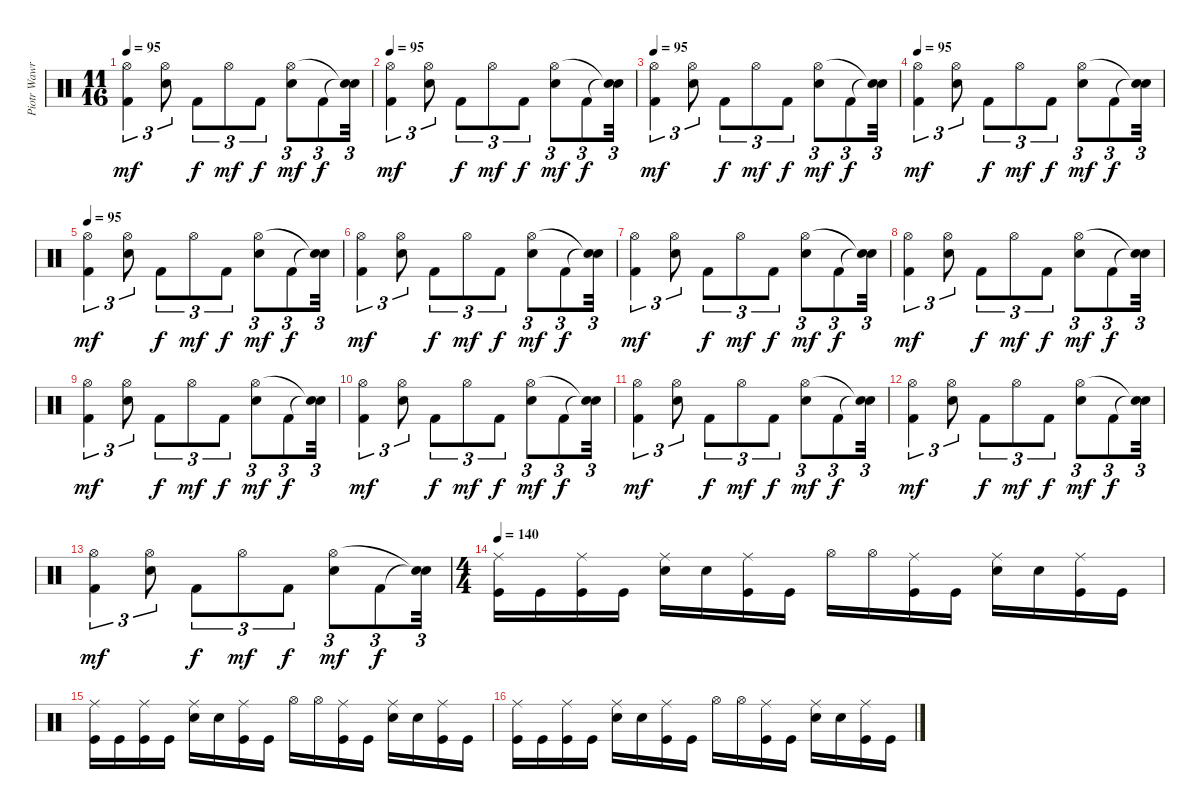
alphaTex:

\track ("Piotr Wawrzeniunk (drums)" "Piotr Wawr") {instrument percussion}
\staff {score}
\articulation defaults
\ts (11 16)
\tempo 95
\clef neutral
\ks c
("Kick (hit) 2" "Hi-Hat (open)").4{tu (3 2) dy mf} ("Electric Snare (hit)" "Hi-Hat (open)").8{tu (3 2)} "Kick (hit) 2".8{tu (3 2) dy f} "Hi-Hat (open)".8{tu (3 2) dy mf} "Kick (hit) 2".8{tu (3 2) dy f} ("Electric Snare (hit)" "Hi-Hat (open)").8{tu (3 2) dy mf} "Kick (hit) 2".8{tu (3 2) dy f} ("Snare (hit)"{t} "Snare (hit)"{t}).32{tu (3 2)} |
\tempo 95
("Kick (hit) 2" "Hi-Hat (open)").4{tu (3 2) dy mf} ("Electric Snare (hit)" "Hi-Hat (open)").8{tu (3 2)} "Kick (hit) 2".8{tu (3 2) dy f} "Hi-Hat (open)".8{tu (3 2) dy mf} "Kick (hit) 2".8{tu (3 2) dy f} ("Electric Snare (hit)" "Hi-Hat (open)").8{tu (3 2) dy mf} "Kick (hit) 2".8{tu (3 2) dy f} ("Snare (hit)"{t} "Snare (hit)"{t}).32{tu (3 2)} |
\tempo 95
("Kick (hit) 2" "Hi-Hat (open)").4{tu (3 2) dy mf} ("Electric Snare (hit)" "Hi-Hat (open)").8{tu (3 2)} "Kick (hit) 2".8{tu (3 2) dy f} "Hi-Hat (open)".8{tu (3 2) dy mf} "Kick (hit) 2".8{tu (3 2) dy f} ("Electric Snare (hit)" "Hi-Hat (open)").8{tu (3 2) dy mf} "Kick (hit) 2".8{tu (3 2) dy f} ("Snare (hit)"{t} "Snare (hit)"{t}).32{tu (3 2)} |
\tempo 95
("Kick (hit) 2" "Hi-Hat (open)").4{tu (3 2) dy mf} ("Electric Snare (hit)" "Hi-Hat (open)").8{tu (3 2)} "Kick (hit) 2".8{tu (3 2) dy f} "Hi-Hat (open)".8{tu (3 2) dy mf} "Kick (hit) 2".8{tu (3 2) dy f} ("Electric Snare (hit)" "Hi-Hat (open)").8{tu (3 2) dy mf} "Kick (hit) 2".8{tu (3 2) dy f} ("Snare (hit)"{t} "Snare (hit)"{t}).32{tu (3 2)} |
\tempo 95
("Kick (hit) 2" "Hi-Hat (open)").4{tu (3 2) dy mf} ("Electric Snare (hit)" "Hi-Hat (open)").8{tu (3 2)} "Kick (hit) 2".8{tu (3 2) dy f} "Hi-Hat (open)".8{tu (3 2) dy mf} "Kick (hit) 2".8{tu (3 2) dy f} ("Electric Snare (hit)" "Hi-Hat (open)").8{tu (3 2) dy mf} "Kick (hit) 2".8{tu (3 2) dy f} ("Snare (hit)"{t} "Snare (hit)"{t}).32{tu (3 2)} |
("Kick (hit) 2" "Hi-Hat (open)").4{tu (3 2) dy mf} ("Electric Snare (hit)" "Hi-Hat (open)").8{tu (3 2)} "Kick (hit) 2".8{tu (3 2) dy f} "Hi-Hat (open)".8{tu (3 2) dy mf} "Kick (hit) 2".8{tu (3 2) dy f} ("Electric Snare (hit)" "Hi-Hat (open)").8{tu (3 2) dy mf} "Kick (hit) 2".8{tu (3 2) dy f} ("Snare (hit)"{t} "Snare (hit)"{t}).32{tu (3 2)} |
("Kick (hit) 2" "Hi-Hat (open)").4{tu (3 2) dy mf} ("Electric Snare (hit)" "Hi-Hat (open)").8{tu (3 2)} "Kick (hit) 2".8{tu (3 2) dy f} "Hi-Hat (open)".8{tu (3 2) dy mf} "Kick (hit) 2".8{tu (3 2) dy f} ("Electric Snare (hit)" "Hi-Hat (open)").8{tu (3 2) dy mf} "Kick (hit) 2".8{tu (3 2) dy f} ("Snare (hit)"{t} "Snare (hit)"{t}).32{tu (3 2)} |
("Kick (hit) 2" "Hi-Hat (open)").4{tu (3 2) dy mf} ("Electric Snare (hit)" "Hi-Hat (open)").8{tu (3 2)} "Kick (hit) 2".8{tu (3 2) dy f} "Hi-Hat (open)".8{tu (3 2) dy mf} "Kick (hit) 2".8{tu (3 2) dy f} ("Electric Snare (hit)" "Hi-Hat (open)").8{tu (3 2) dy mf} "Kick (hit) 2".8{tu (3 2) dy f} ("Snare (hit)"{t} "Snare (hit)"{t}).32{tu (3 2)} |
("Kick (hit) 2" "Hi-Hat (open)").4{tu (3 2) dy mf} ("Electric Snare (hit)" "Hi-Hat (open)").8{tu (3 2)} "Kick (hit) 2".8{tu (3 2) dy f} "Hi-Hat (open)".8{tu (3 2) dy mf} "Kick (hit) 2".8{tu (3 2) dy f} ("Electric Snare (hit)" "Hi-Hat (open)").8{tu (3 2) dy mf} "Kick (hit) 2".8{tu (3 2) dy f} ("Snare (hit)"{t} "Snare (hit)"{t}).32{tu (3 2)} |
("Kick (hit) 2" "Hi-Hat (open)").4{tu (3 2) dy mf} ("Electric Snare (hit)" "Hi-Hat (open)").8{tu (3 2)} "Kick (hit) 2".8{tu (3 2) dy f} "Hi-Hat (open)".8{tu (3 2) dy mf} "Kick (hit) 2".8{tu (3 2) dy f} ("Electric Snare (hit)" "Hi-Hat (open)").8{tu (3 2) dy mf} "Kick (hit) 2".8{tu (3 2) dy f} ("Snare (hit)"{t} "Snare (hit)"{t}).32{tu (3 2)} |
("Kick (hit) 2" "Hi-Hat (open)").4{tu (3 2) dy mf} ("Electric Snare (hit)" "Hi-Hat (open)").8{tu (3 2)} "Kick (hit) 2".8{tu (3 2) dy f} "Hi-Hat (open)".8{tu (3 2) dy mf} "Kick (hit) 2".8{tu (3 2) dy f} ("Electric Snare (hit)" "Hi-Hat (open)").8{tu (3 2) dy mf} "Kick (hit) 2".8{tu (3 2) dy f} ("Snare (hit)"{t} "Snare (hit)"{t}).32{tu (3 2)} |
("Kick (hit) 2" "Hi-Hat (open)").4{tu (3 2) dy mf} ("Electric Snare (hit)" "Hi-Hat (open)").8{tu (3 2)} "Kick (hit) 2".8{tu (3 2) dy f} "Hi-Hat (open)".8{tu (3 2) dy mf} "Kick (hit) 2".8{tu (3 2) dy f} ("Electric Snare (hit)" "Hi-Hat (open)").8{tu (3 2) dy mf} "Kick (hit) 2".8{tu (3 2) dy f} ("Snare (hit)"{t} "Snare (hit)"{t}).32{tu (3 2)} |
("Kick (hit) 2" "Hi-Hat (open)").4{tu (3 2) dy mf} ("Electric Snare (hit)" "Hi-Hat (open)").8{tu (3 2)} "Kick (hit) 2".8{tu (3 2) dy f} "Hi-Hat (open)".8{tu (3 2) dy mf} "Kick (hit) 2".8{tu (3 2) dy f} ("Electric Snare (hit)" "Hi-Hat (open)").8{tu (3 2) dy mf} "Kick (hit) 2".8{tu (3 2) dy f} ("Snare (hit)"{t} "Snare (hit)"{t}).32{tu (3 2)} |
\ts (4 4)
\tempo 140
("Kick (hit)" "Ride (middle)").16 "Kick (hit)".16 ("Kick (hit)" "Ride (middle)").16 "Kick (hit)".16 ("Electric Snare (hit)" "Ride (middle)").16 "Electric Snare (hit)".16 ("Kick (hit)" "Ride (middle)").16 "Kick (hit)".16 "Hi-Hat (open)".16 "Hi-Hat (open)".16 ("Kick (hit)" "Ride (middle)").16 "Kick (hit)".16 ("Electric Snare (hit)" "Ride (middle)").16 "Electric Snare (hit)".16 ("Kick (hit)" "Ride (middle)").16 "Kick (hit)".16 |
("Kick (hit)" "Ride (middle)").16 "Kick (hit)".16 ("Kick (hit)" "Ride (middle)").16 "Kick (hit)".16 ("Electric Snare (hit)" "Ride (middle)").16 "Electric Snare (hit)".16 ("Kick (hit)" "Ride (middle)").16 "Kick (hit)".16 "Hi-Hat (open)".16 "Hi-Hat (open)".16 ("Kick (hit)" "Ride (middle)").16 "Kick (hit)".16 ("Electric Snare (hit)" "Ride (middle)").16 "Electric Snare (hit)".16 ("Kick (hit)" "Ride (middle)").16 "Kick (hit)".16 |
("Kick (hit)" "Ride (middle)").16 "Kick (hit)".16 ("Kick (hit)" "Ride (middle)").16 "Kick (hit)".16 ("Electric Snare (hit)" "Ride (middle)").16 "Electric Snare (hit)".16 ("Kick (hit)" "Ride (middle)").16 "Kick (hit)".16 "Hi-Hat (open)".16 "Hi-Hat (open)".16 ("Kick (hit)" "Ride (middle)").16 "Kick (hit)".16 ("Electric Snare (hit)" "Ride (middle)").16 "Electric Snare (hit)".16 ("Kick (hit)" "Ride (middle)").16 "Kick (hit)".16
